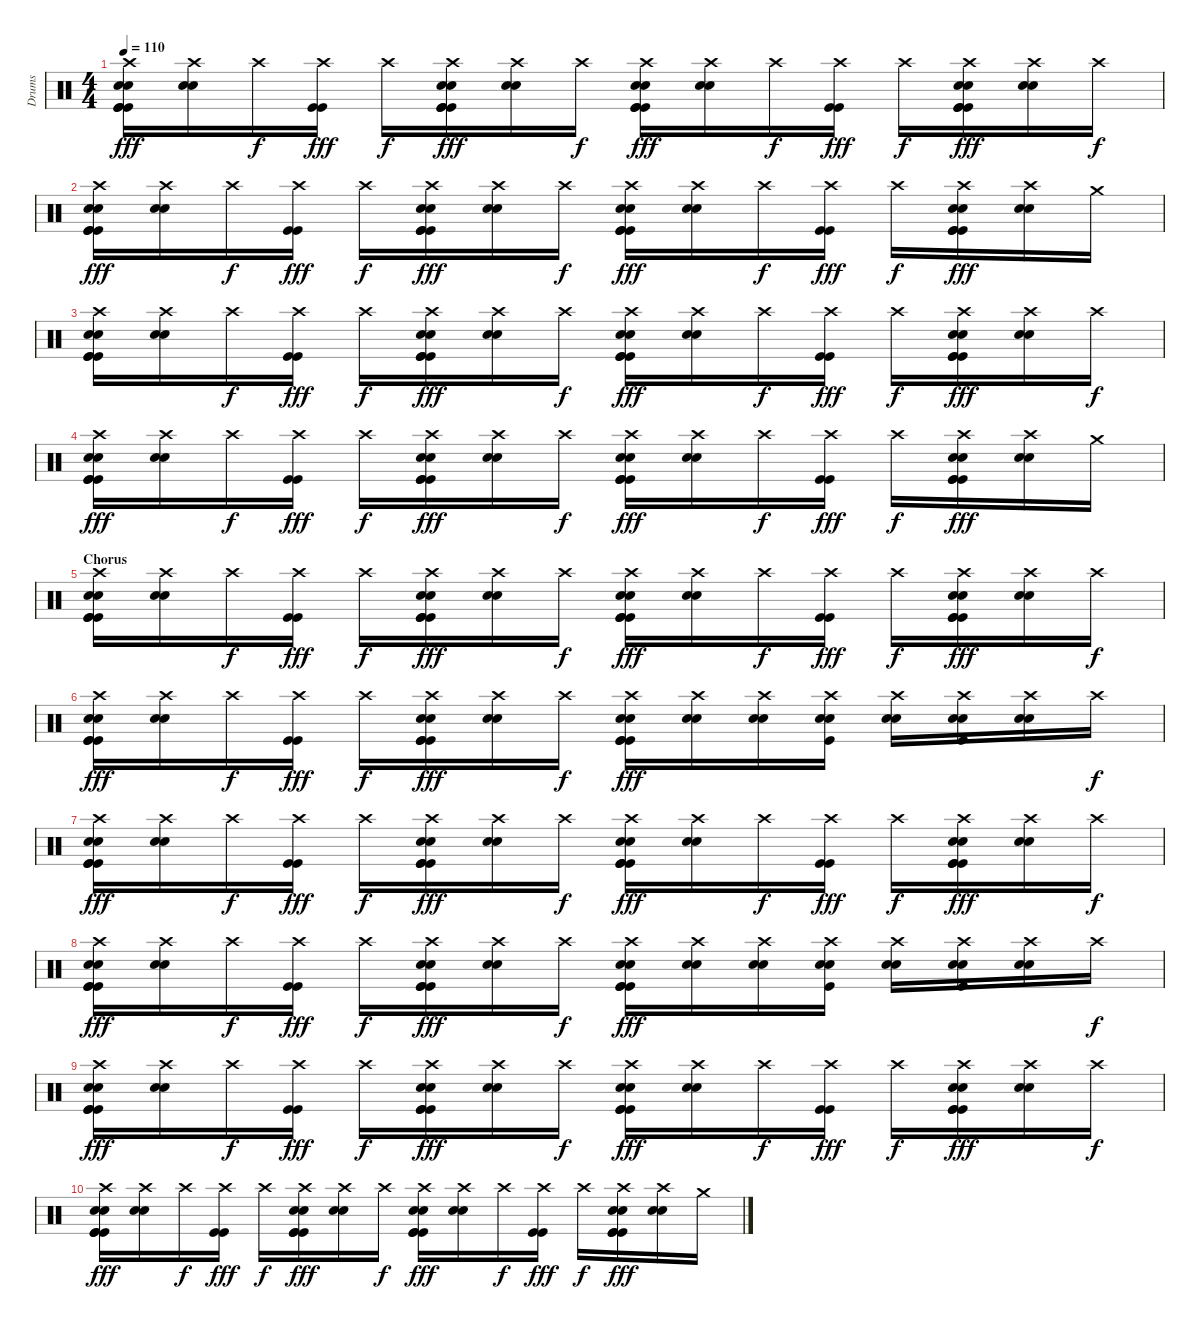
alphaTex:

\track ("Drums" "Drums") {instrument percussion}
\staff {score}
\articulation defaults
\ts (4 4)
\tempo 110
\clef neutral
\ks c
("Crash high (hit)" "Kick (hit)" "Electric Snare (hit)" "Electric Snare (hit)" "Kick (hit)" "Kick (hit)").16{dy fff} ("Crash high (hit)" "Electric Snare (hit)" "Electric Snare (hit)").16 "Crash high (hit)".16{dy f} ("Crash high (hit)" "Kick (hit)" "Kick (hit)").16{dy fff} "Crash high (hit)".16{dy f} ("Crash high (hit)" "Kick (hit)" "Electric Snare (hit)" "Electric Snare (hit)" "Kick (hit)" "Kick (hit)").16{dy fff} ("Crash high (hit)" "Electric Snare (hit)" "Electric Snare (hit)").16 "Crash high (hit)".16{dy f} ("Crash high (hit)" "Kick (hit)" "Kick (hit)" "Electric Snare (hit)" "Electric Snare (hit)" "Kick (hit)").16{dy fff} ("Crash high (hit)" "Electric Snare (hit)" "Electric Snare (hit)").16 "Crash high (hit)".16{dy f} ("Crash high (hit)" "Kick (hit)" "Kick (hit)").16{dy fff} "Crash high (hit)".16{dy f} ("Crash high (hit)" "Kick (hit)" "Electric Snare (hit)" "Electric Snare (hit)" "Kick (hit)" "Kick (hit)").16{dy fff} ("Crash high (hit)" "Electric Snare (hit)" "Electric Snare (hit)").16 "Crash high (hit)".16{dy f} |
("Crash high (hit)" "Kick (hit)" "Electric Snare (hit)" "Electric Snare (hit)" "Kick (hit)" "Kick (hit)").16{dy fff} ("Crash high (hit)" "Electric Snare (hit)" "Electric Snare (hit)").16 "Crash high (hit)".16{dy f} ("Crash high (hit)" "Kick (hit)" "Kick (hit)").16{dy fff} "Crash high (hit)".16{dy f} ("Crash high (hit)" "Kick (hit)" "Electric Snare (hit)" "Electric Snare (hit)" "Kick (hit)" "Kick (hit)").16{dy fff} ("Crash high (hit)" "Electric Snare (hit)" "Electric Snare (hit)").16 "Crash high (hit)".16{dy f} ("Crash high (hit)" "Kick (hit)" "Kick (hit)" "Electric Snare (hit)" "Electric Snare (hit)" "Kick (hit)").16{dy fff} ("Crash high (hit)" "Electric Snare (hit)" "Electric Snare (hit)").16 "Crash high (hit)".16{dy f} ("Crash high (hit)" "Kick (hit)" "Kick (hit)").16{dy fff} "Crash high (hit)".16{dy f} ("Crash high (hit)" "Kick (hit)" "Electric Snare (hit)" "Electric Snare (hit)" "Kick (hit)" "Kick (hit)").16{dy fff} ("Crash high (hit)" "Electric Snare (hit)" "Electric Snare (hit)").16 "Crash medium (hit)".16 |
("Crash high (hit)" "Kick (hit)" "Electric Snare (hit)" "Electric Snare (hit)" "Kick (hit)" "Kick (hit)").16 ("Crash high (hit)" "Electric Snare (hit)" "Electric Snare (hit)").16 "Crash high (hit)".16{dy f} ("Crash high (hit)" "Kick (hit)" "Kick (hit)").16{dy fff} "Crash high (hit)".16{dy f} ("Crash high (hit)" "Kick (hit)" "Electric Snare (hit)" "Electric Snare (hit)" "Kick (hit)" "Kick (hit)").16{dy fff} ("Crash high (hit)" "Electric Snare (hit)" "Electric Snare (hit)").16 "Crash high (hit)".16{dy f} ("Crash high (hit)" "Kick (hit)" "Kick (hit)" "Electric Snare (hit)" "Electric Snare (hit)" "Kick (hit)").16{dy fff} ("Crash high (hit)" "Electric Snare (hit)" "Electric Snare (hit)").16 "Crash high (hit)".16{dy f} ("Crash high (hit)" "Kick (hit)" "Kick (hit)").16{dy fff} "Crash high (hit)".16{dy f} ("Crash high (hit)" "Kick (hit)" "Electric Snare (hit)" "Electric Snare (hit)" "Kick (hit)" "Kick (hit)").16{dy fff} ("Crash high (hit)" "Electric Snare (hit)" "Electric Snare (hit)").16 "Crash high (hit)".16{dy f} |
("Crash high (hit)" "Kick (hit)" "Electric Snare (hit)" "Electric Snare (hit)" "Kick (hit)" "Kick (hit)").16{dy fff} ("Crash high (hit)" "Electric Snare (hit)" "Electric Snare (hit)").16 "Crash high (hit)".16{dy f} ("Crash high (hit)" "Kick (hit)" "Kick (hit)").16{dy fff} "Crash high (hit)".16{dy f} ("Crash high (hit)" "Kick (hit)" "Electric Snare (hit)" "Electric Snare (hit)" "Kick (hit)" "Kick (hit)").16{dy fff} ("Crash high (hit)" "Electric Snare (hit)" "Electric Snare (hit)").16 "Crash high (hit)".16{dy f} ("Crash high (hit)" "Kick (hit)" "Kick (hit)" "Electric Snare (hit)" "Electric Snare (hit)" "Kick (hit)").16{dy fff} ("Crash high (hit)" "Electric Snare (hit)" "Electric Snare (hit)").16 "Crash high (hit)".16{dy f} ("Crash high (hit)" "Kick (hit)" "Kick (hit)").16{dy fff} "Crash high (hit)".16{dy f} ("Crash high (hit)" "Kick (hit)" "Electric Snare (hit)" "Electric Snare (hit)" "Kick (hit)" "Kick (hit)").16{dy fff} ("Crash high (hit)" "Electric Snare (hit)" "Electric Snare (hit)").16 "Crash medium (hit)".16 |
\section ("" "Chorus")
("Crash high (hit)" "Kick (hit)" "Electric Snare (hit)" "Electric Snare (hit)" "Kick (hit)" "Kick (hit)").16 ("Crash high (hit)" "Electric Snare (hit)" "Electric Snare (hit)").16 "Crash high (hit)".16{dy f} ("Crash high (hit)" "Kick (hit)" "Kick (hit)").16{dy fff} "Crash high (hit)".16{dy f} ("Crash high (hit)" "Kick (hit)" "Electric Snare (hit)" "Electric Snare (hit)" "Kick (hit)" "Kick (hit)").16{dy fff} ("Crash high (hit)" "Electric Snare (hit)" "Electric Snare (hit)").16 "Crash high (hit)".16{dy f} ("Crash high (hit)" "Kick (hit)" "Kick (hit)" "Electric Snare (hit)" "Electric Snare (hit)" "Kick (hit)").16{dy fff} ("Crash high (hit)" "Electric Snare (hit)" "Electric Snare (hit)").16 "Crash high (hit)".16{dy f} ("Crash high (hit)" "Kick (hit)" "Kick (hit)").16{dy fff} "Crash high (hit)".16{dy f} ("Crash high (hit)" "Kick (hit)" "Electric Snare (hit)" "Electric Snare (hit)" "Kick (hit)" "Kick (hit)").16{dy fff} ("Crash high (hit)" "Electric Snare (hit)" "Electric Snare (hit)").16 "Crash high (hit)".16{dy f} |
("Crash high (hit)" "Kick (hit)" "Electric Snare (hit)" "Electric Snare (hit)" "Kick (hit)" "Kick (hit)").16{dy fff} ("Crash high (hit)" "Electric Snare (hit)" "Electric Snare (hit)").16 "Crash high (hit)".16{dy f} ("Crash high (hit)" "Kick (hit)" "Kick (hit)").16{dy fff} "Crash high (hit)".16{dy f} ("Crash high (hit)" "Kick (hit)" "Electric Snare (hit)" "Electric Snare (hit)" "Kick (hit)" "Kick (hit)").16{dy fff} ("Crash high (hit)" "Electric Snare (hit)" "Electric Snare (hit)").16 "Crash high (hit)".16{dy f} ("Crash high (hit)" "Kick (hit)" "Kick (hit)" "Electric Snare (hit)" "Electric Snare (hit)" "Kick (hit)").16{dy fff} ("Crash high (hit)" "Electric Snare (hit)" "Electric Snare (hit)").16 ("Crash high (hit)" "Electric Snare (hit)" "Electric Snare (hit)").16 ("Crash high (hit)" "Electric Snare (hit)" "Electric Snare (hit)" "Kick (hit)").16 ("Crash high (hit)" "Electric Snare (hit)" "Electric Snare (hit)").16 ("Crash high (hit)" "Electric Snare (hit)" "Electric Snare (hit)" "Kick (hit)").16 ("Crash high (hit)" "Electric Snare (hit)" "Electric Snare (hit)").16 "Crash high (hit)".16{dy f} |
("Crash high (hit)" "Kick (hit)" "Electric Snare (hit)" "Electric Snare (hit)" "Kick (hit)" "Kick (hit)").16{dy fff} ("Crash high (hit)" "Electric Snare (hit)" "Electric Snare (hit)").16 "Crash high (hit)".16{dy f} ("Crash high (hit)" "Kick (hit)" "Kick (hit)").16{dy fff} "Crash high (hit)".16{dy f} ("Crash high (hit)" "Kick (hit)" "Electric Snare (hit)" "Electric Snare (hit)" "Kick (hit)" "Kick (hit)").16{dy fff} ("Crash high (hit)" "Electric Snare (hit)" "Electric Snare (hit)").16 "Crash high (hit)".16{dy f} ("Crash high (hit)" "Kick (hit)" "Kick (hit)" "Electric Snare (hit)" "Electric Snare (hit)" "Kick (hit)").16{dy fff} ("Crash high (hit)" "Electric Snare (hit)" "Electric Snare (hit)").16 "Crash high (hit)".16{dy f} ("Crash high (hit)" "Kick (hit)" "Kick (hit)").16{dy fff} "Crash high (hit)".16{dy f} ("Crash high (hit)" "Kick (hit)" "Electric Snare (hit)" "Electric Snare (hit)" "Kick (hit)" "Kick (hit)").16{dy fff} ("Crash high (hit)" "Electric Snare (hit)" "Electric Snare (hit)").16 "Crash high (hit)".16{dy f} |
("Crash high (hit)" "Kick (hit)" "Electric Snare (hit)" "Electric Snare (hit)" "Kick (hit)" "Kick (hit)").16{dy fff} ("Crash high (hit)" "Electric Snare (hit)" "Electric Snare (hit)").16 "Crash high (hit)".16{dy f} ("Crash high (hit)" "Kick (hit)" "Kick (hit)").16{dy fff} "Crash high (hit)".16{dy f} ("Crash high (hit)" "Kick (hit)" "Electric Snare (hit)" "Electric Snare (hit)" "Kick (hit)" "Kick (hit)").16{dy fff} ("Crash high (hit)" "Electric Snare (hit)" "Electric Snare (hit)").16 "Crash high (hit)".16{dy f} ("Crash high (hit)" "Kick (hit)" "Kick (hit)" "Electric Snare (hit)" "Electric Snare (hit)" "Kick (hit)").16{dy fff} ("Crash high (hit)" "Electric Snare (hit)" "Electric Snare (hit)").16 ("Crash high (hit)" "Electric Snare (hit)" "Electric Snare (hit)").16 ("Crash high (hit)" "Electric Snare (hit)" "Electric Snare (hit)" "Kick (hit)").16 ("Crash high (hit)" "Electric Snare (hit)" "Electric Snare (hit)").16 ("Crash high (hit)" "Electric Snare (hit)" "Electric Snare (hit)" "Kick (hit)").16 ("Crash high (hit)" "Electric Snare (hit)" "Electric Snare (hit)").16 "Crash high (hit)".16{dy f} |
("Crash high (hit)" "Kick (hit)" "Electric Snare (hit)" "Electric Snare (hit)" "Kick (hit)" "Kick (hit)").16{dy fff} ("Crash high (hit)" "Electric Snare (hit)" "Electric Snare (hit)").16 "Crash high (hit)".16{dy f} ("Crash high (hit)" "Kick (hit)" "Kick (hit)").16{dy fff} "Crash high (hit)".16{dy f} ("Crash high (hit)" "Kick (hit)" "Electric Snare (hit)" "Electric Snare (hit)" "Kick (hit)" "Kick (hit)").16{dy fff} ("Crash high (hit)" "Electric Snare (hit)" "Electric Snare (hit)").16 "Crash high (hit)".16{dy f} ("Crash high (hit)" "Kick (hit)" "Kick (hit)" "Electric Snare (hit)" "Electric Snare (hit)" "Kick (hit)").16{dy fff} ("Crash high (hit)" "Electric Snare (hit)" "Electric Snare (hit)").16 "Crash high (hit)".16{dy f} ("Crash high (hit)" "Kick (hit)" "Kick (hit)").16{dy fff} "Crash high (hit)".16{dy f} ("Crash high (hit)" "Kick (hit)" "Electric Snare (hit)" "Electric Snare (hit)" "Kick (hit)" "Kick (hit)").16{dy fff} ("Crash high (hit)" "Electric Snare (hit)" "Electric Snare (hit)").16 "Crash high (hit)".16{dy f} |
("Crash high (hit)" "Kick (hit)" "Electric Snare (hit)" "Electric Snare (hit)" "Kick (hit)" "Kick (hit)").16{dy fff} ("Crash high (hit)" "Electric Snare (hit)" "Electric Snare (hit)").16 "Crash high (hit)".16{dy f} ("Crash high (hit)" "Kick (hit)" "Kick (hit)").16{dy fff} "Crash high (hit)".16{dy f} ("Crash high (hit)" "Kick (hit)" "Electric Snare (hit)" "Electric Snare (hit)" "Kick (hit)" "Kick (hit)").16{dy fff} ("Crash high (hit)" "Electric Snare (hit)" "Electric Snare (hit)").16 "Crash high (hit)".16{dy f} ("Crash high (hit)" "Kick (hit)" "Kick (hit)" "Electric Snare (hit)" "Electric Snare (hit)" "Kick (hit)").16{dy fff} ("Crash high (hit)" "Electric Snare (hit)" "Electric Snare (hit)").16 "Crash high (hit)".16{dy f} ("Crash high (hit)" "Kick (hit)" "Kick (hit)").16{dy fff} "Crash high (hit)".16{dy f} ("Crash high (hit)" "Kick (hit)" "Electric Snare (hit)" "Electric Snare (hit)" "Kick (hit)" "Kick (hit)").16{dy fff} ("Crash high (hit)" "Electric Snare (hit)" "Electric Snare (hit)").16 "Crash medium (hit)".16
